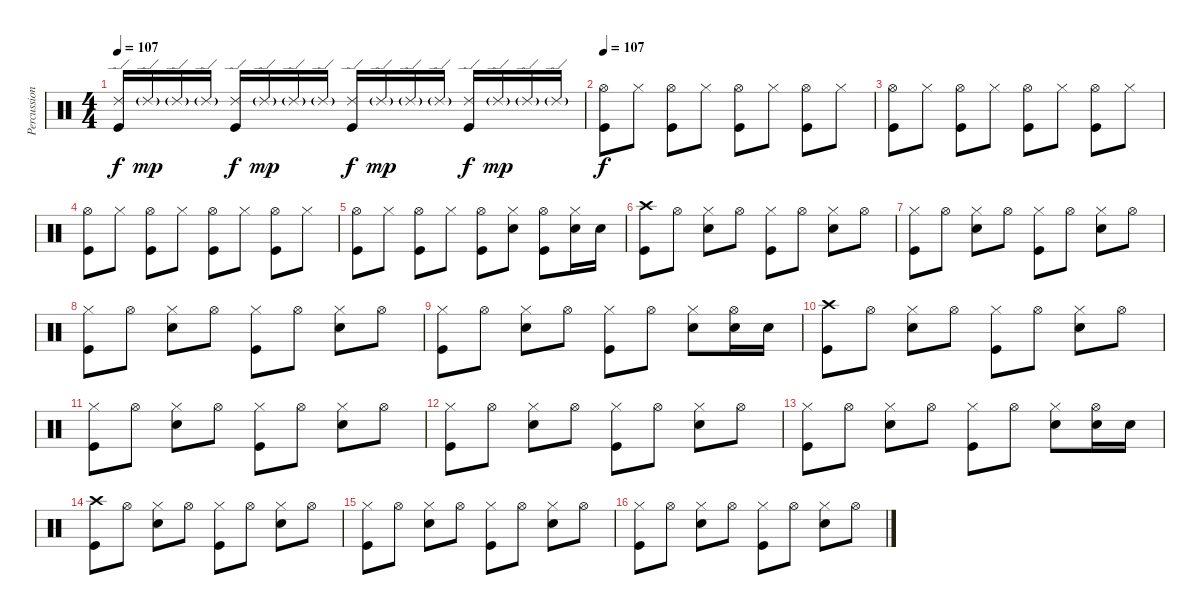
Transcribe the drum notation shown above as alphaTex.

\track ("Percussion" "Percussion") {instrument percussion}
\staff {score}
\articulation defaults
\ts (4 4)
\tempo 107
\clef neutral
\ks c
("Ride (edge) 2" "Kick (hit)").16{dy f} "Ride (edge) 2"{g}.16{dy mp} "Ride (edge) 2"{g}.16 "Ride (edge) 2"{g}.16 ("Ride (edge) 2" "Kick (hit)").16{dy f} "Ride (edge) 2"{g}.16{dy mp} "Ride (edge) 2"{g}.16 "Ride (edge) 2"{g}.16 ("Ride (edge) 2" "Kick (hit)").16{dy f} "Ride (edge) 2"{g}.16{dy mp} "Ride (edge) 2"{g}.16 "Ride (edge) 2"{g}.16 ("Ride (edge) 2" "Kick (hit)").16{dy f} "Ride (edge) 2"{g}.16{dy mp} "Ride (edge) 2"{g}.16 "Ride (edge) 2"{g}.16 |
\tempo 107
("Hi-Hat (open)" "Kick (hit)").8{dy f} "Hi-Hat (closed)".8 ("Hi-Hat (open)" "Kick (hit)").8 "Hi-Hat (closed)".8 ("Hi-Hat (open)" "Kick (hit)").8 "Hi-Hat (closed)".8 ("Hi-Hat (open)" "Kick (hit)").8 "Hi-Hat (closed)".8 |
("Hi-Hat (open)" "Kick (hit)").8 "Hi-Hat (closed)".8 ("Hi-Hat (open)" "Kick (hit)").8 "Hi-Hat (closed)".8 ("Hi-Hat (open)" "Kick (hit)").8 "Hi-Hat (closed)".8 ("Hi-Hat (open)" "Kick (hit)").8 "Hi-Hat (closed)".8 |
("Hi-Hat (open)" "Kick (hit)").8 "Hi-Hat (closed)".8 ("Hi-Hat (open)" "Kick (hit)").8 "Hi-Hat (closed)".8 ("Hi-Hat (open)" "Kick (hit)").8 "Hi-Hat (closed)".8 ("Hi-Hat (open)" "Kick (hit)").8 "Hi-Hat (closed)".8 |
("Hi-Hat (open)" "Kick (hit)").8 "Hi-Hat (closed)".8 ("Hi-Hat (open)" "Kick (hit)").8 "Hi-Hat (closed)".8 ("Hi-Hat (open)" "Kick (hit)").8 ("Hi-Hat (closed)" "Snare (hit) 2").8 ("Hi-Hat (open)" "Kick (hit)").8 ("Hi-Hat (closed)" "Snare (hit) 2").16 "Snare (hit) 2".16 |
("Crash high (hit)" "Kick (hit)").8 "Hi-Hat (open)".8 ("Hi-Hat (closed)" "Snare (hit) 2").8 "Hi-Hat (open)".8 ("Hi-Hat (closed)" "Kick (hit)").8 "Hi-Hat (open)".8 ("Hi-Hat (closed)" "Snare (hit) 2").8 "Hi-Hat (open)".8 |
("Hi-Hat (closed)" "Kick (hit)").8 "Hi-Hat (open)".8 ("Hi-Hat (closed)" "Snare (hit) 2").8 "Hi-Hat (open)".8 ("Hi-Hat (closed)" "Kick (hit)").8 "Hi-Hat (open)".8 ("Hi-Hat (closed)" "Snare (hit) 2").8 "Hi-Hat (open)".8 |
("Hi-Hat (closed)" "Kick (hit)").8 "Hi-Hat (open)".8 ("Hi-Hat (closed)" "Snare (hit) 2").8 "Hi-Hat (open)".8 ("Hi-Hat (closed)" "Kick (hit)").8 "Hi-Hat (open)".8 ("Hi-Hat (closed)" "Snare (hit) 2").8 "Hi-Hat (open)".8 |
("Hi-Hat (closed)" "Kick (hit)").8 "Hi-Hat (open)".8 ("Hi-Hat (closed)" "Snare (hit) 2").8 "Hi-Hat (open)".8 ("Hi-Hat (closed)" "Kick (hit)").8 "Hi-Hat (open)".8 ("Hi-Hat (closed)" "Snare (hit) 2").8 ("Hi-Hat (open)" "Snare (hit) 2").16 "Snare (hit) 2".16 |
("Crash high (hit)" "Kick (hit)").8 "Hi-Hat (open)".8 ("Hi-Hat (closed)" "Snare (hit) 2").8 "Hi-Hat (open)".8 ("Hi-Hat (closed)" "Kick (hit)").8 "Hi-Hat (open)".8 ("Hi-Hat (closed)" "Snare (hit) 2").8 "Hi-Hat (open)".8 |
("Hi-Hat (closed)" "Kick (hit)").8 "Hi-Hat (open)".8 ("Hi-Hat (closed)" "Snare (hit) 2").8 "Hi-Hat (open)".8 ("Hi-Hat (closed)" "Kick (hit)").8 "Hi-Hat (open)".8 ("Hi-Hat (closed)" "Snare (hit) 2").8 "Hi-Hat (open)".8 |
("Hi-Hat (closed)" "Kick (hit)").8 "Hi-Hat (open)".8 ("Hi-Hat (closed)" "Snare (hit) 2").8 "Hi-Hat (open)".8 ("Hi-Hat (closed)" "Kick (hit)").8 "Hi-Hat (open)".8 ("Hi-Hat (closed)" "Snare (hit) 2").8 "Hi-Hat (open)".8 |
("Hi-Hat (closed)" "Kick (hit)").8 "Hi-Hat (open)".8 ("Hi-Hat (closed)" "Snare (hit) 2").8 "Hi-Hat (open)".8 ("Hi-Hat (closed)" "Kick (hit)").8 "Hi-Hat (open)".8 ("Hi-Hat (closed)" "Snare (hit) 2").8 ("Hi-Hat (open)" "Snare (hit) 2").16 "Snare (hit) 2".16 |
("Crash high (hit)" "Kick (hit)").8 "Hi-Hat (open)".8 ("Hi-Hat (closed)" "Snare (hit) 2").8 "Hi-Hat (open)".8 ("Hi-Hat (closed)" "Kick (hit)").8 "Hi-Hat (open)".8 ("Hi-Hat (closed)" "Snare (hit) 2").8 "Hi-Hat (open)".8 |
("Hi-Hat (closed)" "Kick (hit)").8 "Hi-Hat (open)".8 ("Hi-Hat (closed)" "Snare (hit) 2").8 "Hi-Hat (open)".8 ("Hi-Hat (closed)" "Kick (hit)").8 "Hi-Hat (open)".8 ("Hi-Hat (closed)" "Snare (hit) 2").8 "Hi-Hat (open)".8 |
("Hi-Hat (closed)" "Kick (hit)").8 "Hi-Hat (open)".8 ("Hi-Hat (closed)" "Snare (hit) 2").8 "Hi-Hat (open)".8 ("Hi-Hat (closed)" "Kick (hit)").8 "Hi-Hat (open)".8 ("Hi-Hat (closed)" "Snare (hit) 2").8 "Hi-Hat (open)".8
